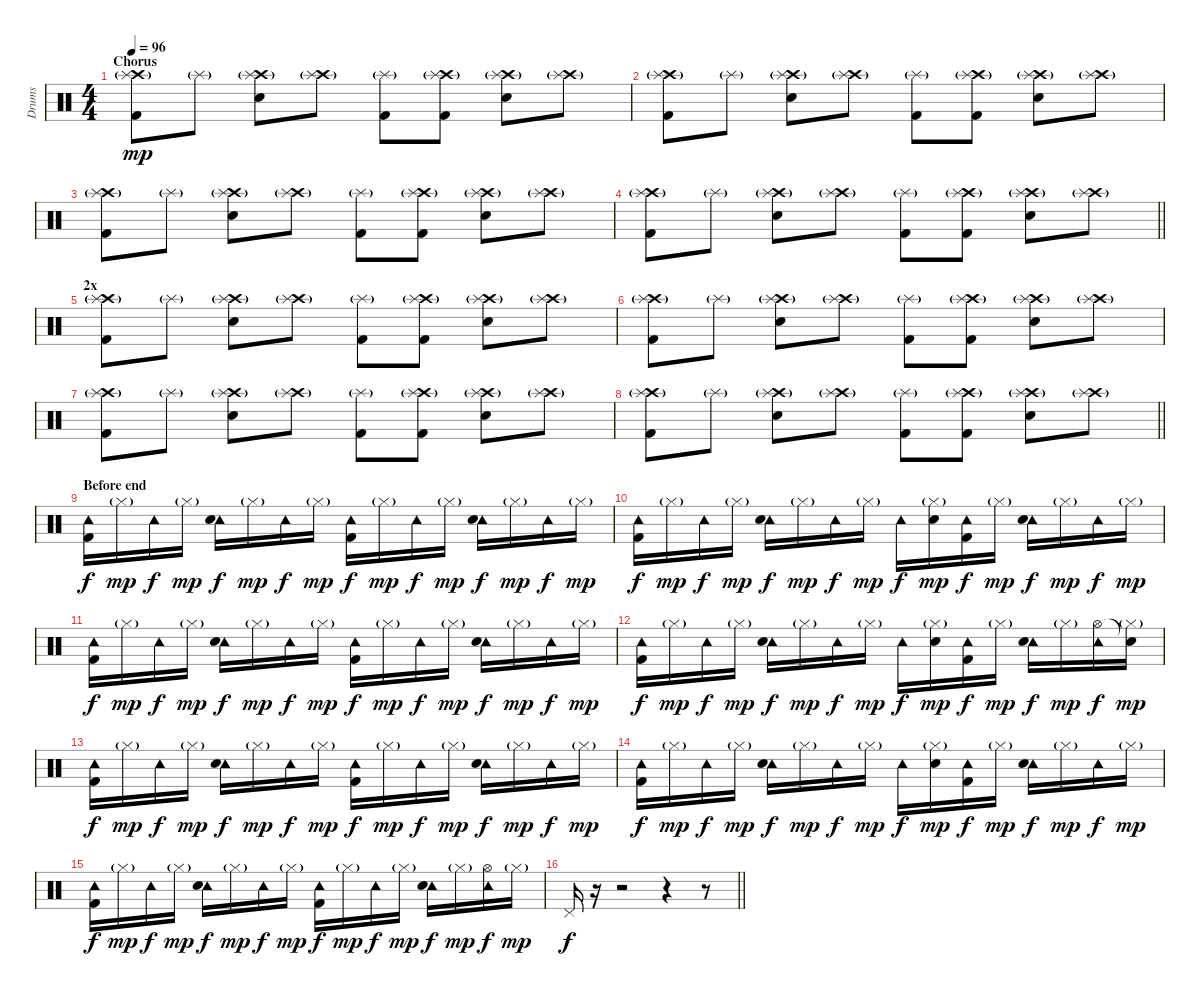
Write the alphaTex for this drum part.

\track ("Drums" "Drums") {instrument percussion}
\staff {score}
\articulation defaults
\ts (4 4)
\section ("" "Chorus")
\tempo 96
\clef neutral
\ks c
("Crash high (hit)" "Splash (hit)"{g} "Kick (hit) 2").8{dy mp} "Splash (hit)"{g}.8 ("Crash high (hit)" "Splash (hit)"{g} "Electric Snare (hit)").8 ("Crash high (hit)" "Splash (hit)"{g}).8 ("Splash (hit)"{g} "Kick (hit) 2").8 ("Crash high (hit)" "Splash (hit)"{g} "Kick (hit) 2").8 ("Crash high (hit)" "Splash (hit)"{g} "Electric Snare (hit)").8 ("Crash high (hit)" "Splash (hit)"{g}).8 |
("Crash high (hit)" "Splash (hit)"{g} "Kick (hit) 2").8 "Splash (hit)"{g}.8 ("Crash high (hit)" "Splash (hit)"{g} "Electric Snare (hit)").8 ("Crash high (hit)" "Splash (hit)"{g}).8 ("Splash (hit)"{g} "Kick (hit) 2").8 ("Crash high (hit)" "Splash (hit)"{g} "Kick (hit) 2").8 ("Crash high (hit)" "Splash (hit)"{g} "Electric Snare (hit)").8 ("Crash high (hit)" "Splash (hit)"{g}).8 |
("Crash high (hit)" "Splash (hit)"{g} "Kick (hit) 2").8 "Splash (hit)"{g}.8 ("Crash high (hit)" "Splash (hit)"{g} "Electric Snare (hit)").8 ("Crash high (hit)" "Splash (hit)"{g}).8 ("Splash (hit)"{g} "Kick (hit) 2").8 ("Crash high (hit)" "Splash (hit)"{g} "Kick (hit) 2").8 ("Crash high (hit)" "Splash (hit)"{g} "Electric Snare (hit)").8 ("Crash high (hit)" "Splash (hit)"{g}).8 |
\barLineRight lightlight
("Crash high (hit)" "Splash (hit)"{g} "Kick (hit) 2").8 "Splash (hit)"{g}.8 ("Crash high (hit)" "Splash (hit)"{g} "Electric Snare (hit)").8 ("Crash high (hit)" "Splash (hit)"{g}).8 ("Splash (hit)"{g} "Kick (hit) 2").8 ("Crash high (hit)" "Splash (hit)"{g} "Kick (hit) 2").8 ("Crash high (hit)" "Splash (hit)"{g} "Electric Snare (hit)").8 ("Crash high (hit)" "Splash (hit)"{g}).8 |
\section ("" "2x")
("Crash high (hit)" "Splash (hit)"{g} "Kick (hit) 2").8 "Splash (hit)"{g}.8 ("Crash high (hit)" "Splash (hit)"{g} "Electric Snare (hit)").8 ("Crash high (hit)" "Splash (hit)"{g}).8 ("Splash (hit)"{g} "Kick (hit) 2").8 ("Crash high (hit)" "Splash (hit)"{g} "Kick (hit) 2").8 ("Crash high (hit)" "Splash (hit)"{g} "Electric Snare (hit)").8 ("Crash high (hit)" "Splash (hit)"{g}).8 |
("Crash high (hit)" "Splash (hit)"{g} "Kick (hit) 2").8 "Splash (hit)"{g}.8 ("Crash high (hit)" "Splash (hit)"{g} "Electric Snare (hit)").8 ("Crash high (hit)" "Splash (hit)"{g}).8 ("Splash (hit)"{g} "Kick (hit) 2").8 ("Crash high (hit)" "Splash (hit)"{g} "Kick (hit) 2").8 ("Crash high (hit)" "Splash (hit)"{g} "Electric Snare (hit)").8 ("Crash high (hit)" "Splash (hit)"{g}).8 |
("Crash high (hit)" "Splash (hit)"{g} "Kick (hit) 2").8 "Splash (hit)"{g}.8 ("Crash high (hit)" "Splash (hit)"{g} "Electric Snare (hit)").8 ("Crash high (hit)" "Splash (hit)"{g}).8 ("Splash (hit)"{g} "Kick (hit) 2").8 ("Crash high (hit)" "Splash (hit)"{g} "Kick (hit) 2").8 ("Crash high (hit)" "Splash (hit)"{g} "Electric Snare (hit)").8 ("Crash high (hit)" "Splash (hit)"{g}).8 |
\barLineRight lightlight
("Crash high (hit)" "Splash (hit)"{g} "Kick (hit) 2").8 "Splash (hit)"{g}.8 ("Crash high (hit)" "Splash (hit)"{g} "Electric Snare (hit)").8 ("Crash high (hit)" "Splash (hit)"{g}).8 ("Splash (hit)"{g} "Kick (hit) 2").8 ("Crash high (hit)" "Splash (hit)"{g} "Kick (hit) 2").8 ("Crash high (hit)" "Splash (hit)"{g} "Electric Snare (hit)").8 ("Crash high (hit)" "Splash (hit)"{g}).8 |
\section ("" "Before end")
("Tambourine (hit)" "Kick (hit) 2").16{dy f} "Hi-Hat (closed)"{g}.16{dy mp} "Tambourine (hit)".16{dy f} "Hi-Hat (closed)"{g}.16{dy mp} ("Tambourine (hit)" "Snare (hit) 2").16{dy f} "Hi-Hat (closed)"{g}.16{dy mp} "Tambourine (hit)".16{dy f} "Hi-Hat (closed)"{g}.16{dy mp} ("Tambourine (hit)" "Kick (hit) 2").16{dy f} "Hi-Hat (closed)"{g}.16{dy mp} "Tambourine (hit)".16{dy f} "Hi-Hat (closed)"{g}.16{dy mp} ("Tambourine (hit)" "Snare (hit) 2").16{dy f} "Hi-Hat (closed)"{g}.16{dy mp} "Tambourine (hit)".16{dy f} "Hi-Hat (closed)"{g}.16{dy mp} |
("Tambourine (hit)" "Kick (hit) 2").16{dy f} "Hi-Hat (closed)"{g}.16{dy mp} "Tambourine (hit)".16{dy f} "Hi-Hat (closed)"{g}.16{dy mp} ("Tambourine (hit)" "Snare (hit) 2").16{dy f} "Hi-Hat (closed)"{g}.16{dy mp} "Tambourine (hit)".16{dy f} "Hi-Hat (closed)"{g}.16{dy mp} "Tambourine (hit)".16{dy f} ("Hi-Hat (closed)"{g} "Snare (hit) 2").16{dy mp} ("Tambourine (hit)" "Kick (hit) 2").16{dy f} "Hi-Hat (closed)"{g}.16{dy mp} ("Tambourine (hit)" "Snare (hit) 2").16{dy f} "Hi-Hat (closed)"{g}.16{dy mp} "Tambourine (hit)".16{dy f} "Hi-Hat (closed)"{g}.16{dy mp} |
("Tambourine (hit)" "Kick (hit) 2").16{dy f} "Hi-Hat (closed)"{g}.16{dy mp} "Tambourine (hit)".16{dy f} "Hi-Hat (closed)"{g}.16{dy mp} ("Tambourine (hit)" "Snare (hit) 2").16{dy f} "Hi-Hat (closed)"{g}.16{dy mp} "Tambourine (hit)".16{dy f} "Hi-Hat (closed)"{g}.16{dy mp} ("Tambourine (hit)" "Kick (hit) 2").16{dy f} "Hi-Hat (closed)"{g}.16{dy mp} "Tambourine (hit)".16{dy f} "Hi-Hat (closed)"{g}.16{dy mp} ("Tambourine (hit)" "Snare (hit) 2").16{dy f} "Hi-Hat (closed)"{g}.16{dy mp} "Tambourine (hit)".16{dy f} "Hi-Hat (closed)"{g}.16{dy mp} |
("Tambourine (hit)" "Kick (hit) 2").16{dy f} "Hi-Hat (closed)"{g}.16{dy mp} "Tambourine (hit)".16{dy f} "Hi-Hat (closed)"{g}.16{dy mp} ("Tambourine (hit)" "Snare (hit) 2").16{dy f} "Hi-Hat (closed)"{g}.16{dy mp} "Tambourine (hit)".16{dy f} "Hi-Hat (closed)"{g}.16{dy mp} "Tambourine (hit)".16{dy f} ("Hi-Hat (closed)"{g} "Snare (hit) 2").16{dy mp} ("Tambourine (hit)" "Kick (hit) 2").16{dy f} "Hi-Hat (closed)"{g}.16{dy mp} ("Tambourine (hit)" "Snare (hit) 2").16{dy f} "Hi-Hat (closed)"{g}.16{dy mp} ("Tambourine (hit)" "Hi-Hat (open)").16{dy f} ("Hi-Hat (closed)"{g} "Snare (hit)"{t}).16{dy mp} |
("Tambourine (hit)" "Kick (hit) 2").16{dy f} "Hi-Hat (closed)"{g}.16{dy mp} "Tambourine (hit)".16{dy f} "Hi-Hat (closed)"{g}.16{dy mp} ("Tambourine (hit)" "Snare (hit) 2").16{dy f} "Hi-Hat (closed)"{g}.16{dy mp} "Tambourine (hit)".16{dy f} "Hi-Hat (closed)"{g}.16{dy mp} ("Tambourine (hit)" "Kick (hit) 2").16{dy f} "Hi-Hat (closed)"{g}.16{dy mp} "Tambourine (hit)".16{dy f} "Hi-Hat (closed)"{g}.16{dy mp} ("Tambourine (hit)" "Snare (hit) 2").16{dy f} "Hi-Hat (closed)"{g}.16{dy mp} "Tambourine (hit)".16{dy f} "Hi-Hat (closed)"{g}.16{dy mp} |
("Tambourine (hit)" "Kick (hit) 2").16{dy f} "Hi-Hat (closed)"{g}.16{dy mp} "Tambourine (hit)".16{dy f} "Hi-Hat (closed)"{g}.16{dy mp} ("Tambourine (hit)" "Snare (hit) 2").16{dy f} "Hi-Hat (closed)"{g}.16{dy mp} "Tambourine (hit)".16{dy f} "Hi-Hat (closed)"{g}.16{dy mp} "Tambourine (hit)".16{dy f} ("Hi-Hat (closed)"{g} "Snare (hit) 2").16{dy mp} ("Tambourine (hit)" "Kick (hit) 2").16{dy f} "Hi-Hat (closed)"{g}.16{dy mp} ("Tambourine (hit)" "Snare (hit) 2").16{dy f} "Hi-Hat (closed)"{g}.16{dy mp} "Tambourine (hit)".16{dy f} "Hi-Hat (closed)"{g}.16{dy mp} |
("Tambourine (hit)" "Kick (hit) 2").16{dy f} "Hi-Hat (closed)"{g}.16{dy mp} "Tambourine (hit)".16{dy f} "Hi-Hat (closed)"{g}.16{dy mp} ("Tambourine (hit)" "Snare (hit) 2").16{dy f} "Hi-Hat (closed)"{g}.16{dy mp} "Tambourine (hit)".16{dy f} "Hi-Hat (closed)"{g}.16{dy mp} ("Tambourine (hit)" "Kick (hit) 2").16{dy f} "Hi-Hat (closed)"{g}.16{dy mp} "Tambourine (hit)".16{dy f} "Hi-Hat (closed)"{g}.16{dy mp} ("Tambourine (hit)" "Snare (hit) 2").16{dy f} "Hi-Hat (closed)"{g}.16{dy mp} ("Tambourine (hit)" "Hi-Hat (open)").16{dy f} "Hi-Hat (closed)"{g}.16{dy mp} |
\barLineRight lightlight "Pedal Hi-Hat (hit)".16{dy f}
r.16 r.2 r.4 r.8
